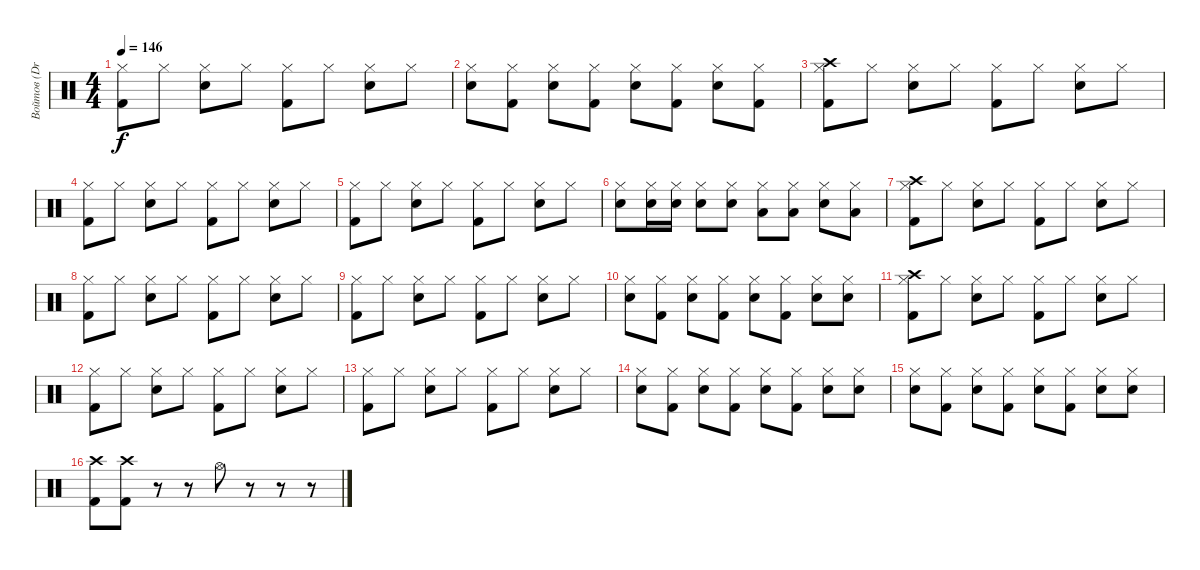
\track ("Войтов (Drums)" "Войтов (Dr") {instrument percussion}
\staff {score}
\articulation defaults
\ts (4 4)
\tempo 146
\clef neutral
\ks c
("Kick (hit) 2" "Hi-Hat (closed)").8{dy f} "Hi-Hat (closed)".8 ("Electric Snare (hit)" "Hi-Hat (closed)").8 "Hi-Hat (closed)".8 ("Kick (hit) 2" "Hi-Hat (closed)").8 "Hi-Hat (closed)".8 ("Electric Snare (hit)" "Hi-Hat (closed)").8 "Hi-Hat (closed)".8 |
("Electric Snare (hit)" "Hi-Hat (closed)").8 ("Kick (hit) 2" "Hi-Hat (closed)").8 ("Electric Snare (hit)" "Hi-Hat (closed)").8 ("Kick (hit) 2" "Hi-Hat (closed)").8 ("Electric Snare (hit)" "Hi-Hat (closed)").8 ("Kick (hit) 2" "Hi-Hat (closed)").8 ("Electric Snare (hit)" "Hi-Hat (closed)").8 ("Kick (hit) 2" "Hi-Hat (closed)").8 |
("Kick (hit) 2" "Hi-Hat (closed)" "Crash high (hit)").8 "Hi-Hat (closed)".8 ("Electric Snare (hit)" "Hi-Hat (closed)").8 "Hi-Hat (closed)".8 ("Kick (hit) 2" "Hi-Hat (closed)").8 "Hi-Hat (closed)".8 ("Electric Snare (hit)" "Hi-Hat (closed)").8 "Hi-Hat (closed)".8 |
("Kick (hit) 2" "Hi-Hat (closed)").8 "Hi-Hat (closed)".8 ("Electric Snare (hit)" "Hi-Hat (closed)").8 "Hi-Hat (closed)".8 ("Kick (hit) 2" "Hi-Hat (closed)").8 "Hi-Hat (closed)".8 ("Electric Snare (hit)" "Hi-Hat (closed)").8 "Hi-Hat (closed)".8 |
("Kick (hit) 2" "Hi-Hat (closed)").8 "Hi-Hat (closed)".8 ("Electric Snare (hit)" "Hi-Hat (closed)").8 "Hi-Hat (closed)".8 ("Kick (hit) 2" "Hi-Hat (closed)").8 "Hi-Hat (closed)".8 ("Electric Snare (hit)" "Hi-Hat (closed)").8 "Hi-Hat (closed)".8 |
("Electric Snare (hit)" "Hi-Hat (closed)").8 ("Electric Snare (hit)" "Hi-Hat (closed)").16 ("Electric Snare (hit)" "Hi-Hat (closed)").16 ("Electric Snare (hit)" "Hi-Hat (closed)").8 ("Electric Snare (hit)" "Hi-Hat (closed)").8 ("Low Tom (hit)" "Hi-Hat (closed)").8 ("Low Tom (hit)" "Hi-Hat (closed)").8 ("Electric Snare (hit)" "Hi-Hat (closed)").8 ("Low Tom (hit)" "Hi-Hat (closed)").8 |
("Kick (hit) 2" "Hi-Hat (closed)" "Crash high (hit)").8 "Hi-Hat (closed)".8 ("Electric Snare (hit)" "Hi-Hat (closed)").8 "Hi-Hat (closed)".8 ("Kick (hit) 2" "Hi-Hat (closed)").8 "Hi-Hat (closed)".8 ("Electric Snare (hit)" "Hi-Hat (closed)").8 "Hi-Hat (closed)".8 |
("Kick (hit) 2" "Hi-Hat (closed)").8 "Hi-Hat (closed)".8 ("Electric Snare (hit)" "Hi-Hat (closed)").8 "Hi-Hat (closed)".8 ("Kick (hit) 2" "Hi-Hat (closed)").8 "Hi-Hat (closed)".8 ("Electric Snare (hit)" "Hi-Hat (closed)").8 "Hi-Hat (closed)".8 |
("Kick (hit) 2" "Hi-Hat (closed)").8 "Hi-Hat (closed)".8 ("Electric Snare (hit)" "Hi-Hat (closed)").8 "Hi-Hat (closed)".8 ("Kick (hit) 2" "Hi-Hat (closed)").8 "Hi-Hat (closed)".8 ("Electric Snare (hit)" "Hi-Hat (closed)").8 "Hi-Hat (closed)".8 |
("Electric Snare (hit)" "Hi-Hat (closed)").8 ("Kick (hit) 2" "Hi-Hat (closed)").8 ("Electric Snare (hit)" "Hi-Hat (closed)").8 ("Kick (hit) 2" "Hi-Hat (closed)").8 ("Electric Snare (hit)" "Hi-Hat (closed)").8 ("Kick (hit) 2" "Hi-Hat (closed)").8 ("Electric Snare (hit)" "Hi-Hat (closed)").8 ("Electric Snare (hit)" "Hi-Hat (closed)").8 |
("Kick (hit) 2" "Hi-Hat (closed)" "Crash high (hit)").8 "Hi-Hat (closed)".8 ("Electric Snare (hit)" "Hi-Hat (closed)").8 "Hi-Hat (closed)".8 ("Kick (hit) 2" "Hi-Hat (closed)").8 "Hi-Hat (closed)".8 ("Electric Snare (hit)" "Hi-Hat (closed)").8 "Hi-Hat (closed)".8 |
("Kick (hit) 2" "Hi-Hat (closed)").8 "Hi-Hat (closed)".8 ("Electric Snare (hit)" "Hi-Hat (closed)").8 "Hi-Hat (closed)".8 ("Kick (hit) 2" "Hi-Hat (closed)").8 "Hi-Hat (closed)".8 ("Electric Snare (hit)" "Hi-Hat (closed)").8 "Hi-Hat (closed)".8 |
("Kick (hit) 2" "Hi-Hat (closed)").8 "Hi-Hat (closed)".8 ("Electric Snare (hit)" "Hi-Hat (closed)").8 "Hi-Hat (closed)".8 ("Kick (hit) 2" "Hi-Hat (closed)").8 "Hi-Hat (closed)".8 ("Electric Snare (hit)" "Hi-Hat (closed)").8 "Hi-Hat (closed)".8 |
("Electric Snare (hit)" "Hi-Hat (closed)").8 ("Kick (hit) 2" "Hi-Hat (closed)").8 ("Electric Snare (hit)" "Hi-Hat (closed)").8 ("Kick (hit) 2" "Hi-Hat (closed)").8 ("Electric Snare (hit)" "Hi-Hat (closed)").8 ("Kick (hit) 2" "Hi-Hat (closed)").8 ("Electric Snare (hit)" "Hi-Hat (closed)").8 ("Electric Snare (hit)" "Hi-Hat (closed)").8 |
("Electric Snare (hit)" "Hi-Hat (closed)").8 ("Kick (hit) 2" "Hi-Hat (closed)").8 ("Electric Snare (hit)" "Hi-Hat (closed)").8 ("Kick (hit) 2" "Hi-Hat (closed)").8 ("Electric Snare (hit)" "Hi-Hat (closed)").8 ("Kick (hit) 2" "Hi-Hat (closed)").8 ("Electric Snare (hit)" "Hi-Hat (closed)").8 ("Electric Snare (hit)" "Hi-Hat (closed)").8 |
("Kick (hit) 2" "Crash high (hit)").8 ("Kick (hit) 2" "Crash high (hit)").8 r.8 r.8 "Hi-Hat (open)".8 r.8 r.8 r.8
